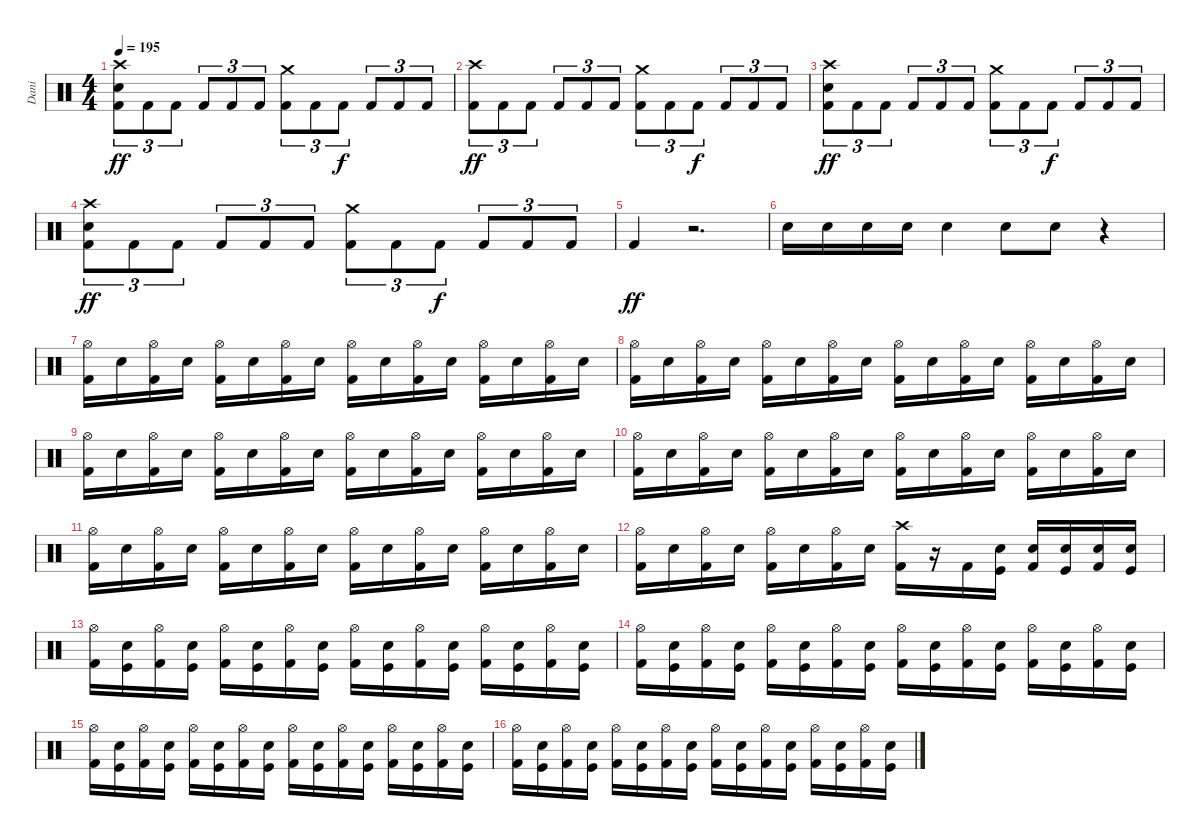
\track ("Dani" "Dani") {instrument percussion}
\staff {score}
\articulation defaults
\ts (4 4)
\tempo 195
\clef neutral
\ks c
("Crash high (hit)" "Electric Snare (hit)" "Kick (hit) 2").8{tu (3 2) dy ff} "Kick (hit) 2".8{tu (3 2)} "Kick (hit) 2".8{tu (3 2)} "Kick (hit) 2".8{tu (3 2)} "Kick (hit) 2".8{tu (3 2)} "Kick (hit) 2".8{tu (3 2)} ("Crash medium (hit)" "Kick (hit) 2").8{tu (3 2)} "Kick (hit) 2".8{tu (3 2)} "Kick (hit) 2".8{tu (3 2) dy f} "Kick (hit) 2".8{tu (3 2)} "Kick (hit) 2".8{tu (3 2)} "Kick (hit) 2".8{tu (3 2)} |
("Crash high (hit)" "Kick (hit) 2").8{tu (3 2) dy ff} "Kick (hit) 2".8{tu (3 2)} "Kick (hit) 2".8{tu (3 2)} "Kick (hit) 2".8{tu (3 2)} "Kick (hit) 2".8{tu (3 2)} "Kick (hit) 2".8{tu (3 2)} ("Crash medium (hit)" "Kick (hit) 2").8{tu (3 2)} "Kick (hit) 2".8{tu (3 2)} "Kick (hit) 2".8{tu (3 2) dy f} "Kick (hit) 2".8{tu (3 2)} "Kick (hit) 2".8{tu (3 2)} "Kick (hit) 2".8{tu (3 2)} |
("Crash high (hit)" "Electric Snare (hit)" "Kick (hit) 2").8{tu (3 2) dy ff} "Kick (hit) 2".8{tu (3 2)} "Kick (hit) 2".8{tu (3 2)} "Kick (hit) 2".8{tu (3 2)} "Kick (hit) 2".8{tu (3 2)} "Kick (hit) 2".8{tu (3 2)} ("Crash medium (hit)" "Kick (hit) 2").8{tu (3 2)} "Kick (hit) 2".8{tu (3 2)} "Kick (hit) 2".8{tu (3 2) dy f} "Kick (hit) 2".8{tu (3 2)} "Kick (hit) 2".8{tu (3 2)} "Kick (hit) 2".8{tu (3 2)} |
("Crash high (hit)" "Electric Snare (hit)" "Kick (hit) 2").8{tu (3 2) dy ff} "Kick (hit) 2".8{tu (3 2)} "Kick (hit) 2".8{tu (3 2)} "Kick (hit) 2".8{tu (3 2)} "Kick (hit) 2".8{tu (3 2)} "Kick (hit) 2".8{tu (3 2)} ("Crash medium (hit)" "Kick (hit) 2").8{tu (3 2)} "Kick (hit) 2".8{tu (3 2)} "Kick (hit) 2".8{tu (3 2) dy f} "Kick (hit) 2".8{tu (3 2)} "Kick (hit) 2".8{tu (3 2)} "Kick (hit) 2".8{tu (3 2)} |
"Kick (hit) 2".4{dy ff} r.2{d} |
"Electric Snare (hit)".16 "Electric Snare (hit)".16 "Electric Snare (hit)".16 "Electric Snare (hit)".16 "Electric Snare (hit)".4 "Electric Snare (hit)".8 "Electric Snare (hit)".8 r.4 |
("Hi-Hat (open)" "Kick (hit) 2").16 "Electric Snare (hit)".16 ("Hi-Hat (open)" "Kick (hit) 2").16 "Electric Snare (hit)".16 ("Hi-Hat (open)" "Kick (hit) 2").16 "Electric Snare (hit)".16 ("Hi-Hat (open)" "Kick (hit) 2").16 "Electric Snare (hit)".16 ("Hi-Hat (open)" "Kick (hit) 2").16 "Electric Snare (hit)".16 ("Hi-Hat (open)" "Kick (hit) 2").16 "Electric Snare (hit)".16 ("Hi-Hat (open)" "Kick (hit) 2").16 "Electric Snare (hit)".16 ("Hi-Hat (open)" "Kick (hit) 2").16 "Electric Snare (hit)".16 |
("Hi-Hat (open)" "Kick (hit) 2").16 "Electric Snare (hit)".16 ("Hi-Hat (open)" "Kick (hit) 2").16 "Electric Snare (hit)".16 ("Hi-Hat (open)" "Kick (hit) 2").16 "Electric Snare (hit)".16 ("Hi-Hat (open)" "Kick (hit) 2").16 "Electric Snare (hit)".16 ("Hi-Hat (open)" "Kick (hit) 2").16 "Electric Snare (hit)".16 ("Hi-Hat (open)" "Kick (hit) 2").16 "Electric Snare (hit)".16 ("Hi-Hat (open)" "Kick (hit) 2").16 "Electric Snare (hit)".16 ("Hi-Hat (open)" "Kick (hit) 2").16 "Electric Snare (hit)".16 |
("Hi-Hat (open)" "Kick (hit) 2").16 "Electric Snare (hit)".16 ("Hi-Hat (open)" "Kick (hit) 2").16 "Electric Snare (hit)".16 ("Hi-Hat (open)" "Kick (hit) 2").16 "Electric Snare (hit)".16 ("Hi-Hat (open)" "Kick (hit) 2").16 "Electric Snare (hit)".16 ("Hi-Hat (open)" "Kick (hit) 2").16 "Electric Snare (hit)".16 ("Hi-Hat (open)" "Kick (hit) 2").16 "Electric Snare (hit)".16 ("Hi-Hat (open)" "Kick (hit) 2").16 "Electric Snare (hit)".16 ("Hi-Hat (open)" "Kick (hit) 2").16 "Electric Snare (hit)".16 |
("Hi-Hat (open)" "Kick (hit) 2").16 "Electric Snare (hit)".16 ("Hi-Hat (open)" "Kick (hit) 2").16 "Electric Snare (hit)".16 ("Hi-Hat (open)" "Kick (hit) 2").16 "Electric Snare (hit)".16 ("Hi-Hat (open)" "Kick (hit) 2").16 "Electric Snare (hit)".16 ("Hi-Hat (open)" "Kick (hit) 2").16 "Electric Snare (hit)".16 ("Hi-Hat (open)" "Kick (hit) 2").16 "Electric Snare (hit)".16 ("Hi-Hat (open)" "Kick (hit) 2").16 "Electric Snare (hit)".16 ("Hi-Hat (open)" "Kick (hit) 2").16 "Electric Snare (hit)".16 |
("Hi-Hat (open)" "Kick (hit) 2").16 "Electric Snare (hit)".16 ("Hi-Hat (open)" "Kick (hit) 2").16 "Electric Snare (hit)".16 ("Hi-Hat (open)" "Kick (hit) 2").16 "Electric Snare (hit)".16 ("Hi-Hat (open)" "Kick (hit) 2").16 "Electric Snare (hit)".16 ("Hi-Hat (open)" "Kick (hit) 2").16 "Electric Snare (hit)".16 ("Hi-Hat (open)" "Kick (hit) 2").16 "Electric Snare (hit)".16 ("Hi-Hat (open)" "Kick (hit) 2").16 "Electric Snare (hit)".16 ("Hi-Hat (open)" "Kick (hit) 2").16 "Electric Snare (hit)".16 |
("Hi-Hat (open)" "Kick (hit) 2").16 "Electric Snare (hit)".16 ("Hi-Hat (open)" "Kick (hit) 2").16 "Electric Snare (hit)".16 ("Hi-Hat (open)" "Kick (hit) 2").16 "Electric Snare (hit)".16 ("Hi-Hat (open)" "Kick (hit) 2").16 "Electric Snare (hit)".16 ("Crash high (hit)" "Kick (hit) 2").16 r.16 "Kick (hit) 2".16 ("Electric Snare (hit)" "Kick (hit)").16 ("Electric Snare (hit)" "Kick (hit) 2").16 ("Electric Snare (hit)" "Kick (hit)").16 ("Electric Snare (hit)" "Kick (hit) 2").16 ("Electric Snare (hit)" "Kick (hit)").16 |
("Hi-Hat (open)" "Kick (hit) 2").16 ("Electric Snare (hit)" "Kick (hit)").16 ("Hi-Hat (open)" "Kick (hit) 2").16 ("Electric Snare (hit)" "Kick (hit)").16 ("Hi-Hat (open)" "Kick (hit) 2").16 ("Electric Snare (hit)" "Kick (hit)").16 ("Hi-Hat (open)" "Kick (hit) 2").16 ("Electric Snare (hit)" "Kick (hit)").16 ("Hi-Hat (open)" "Kick (hit) 2").16 ("Electric Snare (hit)" "Kick (hit)").16 ("Hi-Hat (open)" "Kick (hit) 2").16 ("Electric Snare (hit)" "Kick (hit)").16 ("Hi-Hat (open)" "Kick (hit) 2").16 ("Electric Snare (hit)" "Kick (hit)").16 ("Hi-Hat (open)" "Kick (hit) 2").16 ("Electric Snare (hit)" "Kick (hit)").16 |
("Hi-Hat (open)" "Kick (hit) 2").16 ("Electric Snare (hit)" "Kick (hit)").16 ("Hi-Hat (open)" "Kick (hit) 2").16 ("Electric Snare (hit)" "Kick (hit)").16 ("Hi-Hat (open)" "Kick (hit) 2").16 ("Electric Snare (hit)" "Kick (hit)").16 ("Hi-Hat (open)" "Kick (hit) 2").16 ("Electric Snare (hit)" "Kick (hit)").16 ("Hi-Hat (open)" "Kick (hit) 2").16 ("Electric Snare (hit)" "Kick (hit)").16 ("Hi-Hat (open)" "Kick (hit) 2").16 ("Electric Snare (hit)" "Kick (hit)").16 ("Hi-Hat (open)" "Kick (hit) 2").16 ("Electric Snare (hit)" "Kick (hit)").16 ("Hi-Hat (open)" "Kick (hit) 2").16 ("Electric Snare (hit)" "Kick (hit)").16 |
("Hi-Hat (open)" "Kick (hit) 2").16 ("Electric Snare (hit)" "Kick (hit)").16 ("Hi-Hat (open)" "Kick (hit) 2").16 ("Electric Snare (hit)" "Kick (hit)").16 ("Hi-Hat (open)" "Kick (hit) 2").16 ("Electric Snare (hit)" "Kick (hit)").16 ("Hi-Hat (open)" "Kick (hit) 2").16 ("Electric Snare (hit)" "Kick (hit)").16 ("Hi-Hat (open)" "Kick (hit) 2").16 ("Electric Snare (hit)" "Kick (hit)").16 ("Hi-Hat (open)" "Kick (hit) 2").16 ("Electric Snare (hit)" "Kick (hit)").16 ("Hi-Hat (open)" "Kick (hit) 2").16 ("Electric Snare (hit)" "Kick (hit)").16 ("Hi-Hat (open)" "Kick (hit) 2").16 ("Electric Snare (hit)" "Kick (hit)").16 |
("Hi-Hat (open)" "Kick (hit) 2").16 ("Electric Snare (hit)" "Kick (hit)").16 ("Hi-Hat (open)" "Kick (hit) 2").16 ("Electric Snare (hit)" "Kick (hit)").16 ("Hi-Hat (open)" "Kick (hit) 2").16 ("Electric Snare (hit)" "Kick (hit)").16 ("Hi-Hat (open)" "Kick (hit) 2").16 ("Electric Snare (hit)" "Kick (hit)").16 ("Hi-Hat (open)" "Kick (hit) 2").16 ("Electric Snare (hit)" "Kick (hit)").16 ("Hi-Hat (open)" "Kick (hit) 2").16 ("Electric Snare (hit)" "Kick (hit)").16 ("Hi-Hat (open)" "Kick (hit) 2").16 ("Electric Snare (hit)" "Kick (hit)").16 ("Hi-Hat (open)" "Kick (hit) 2").16 ("Electric Snare (hit)" "Kick (hit)").16
